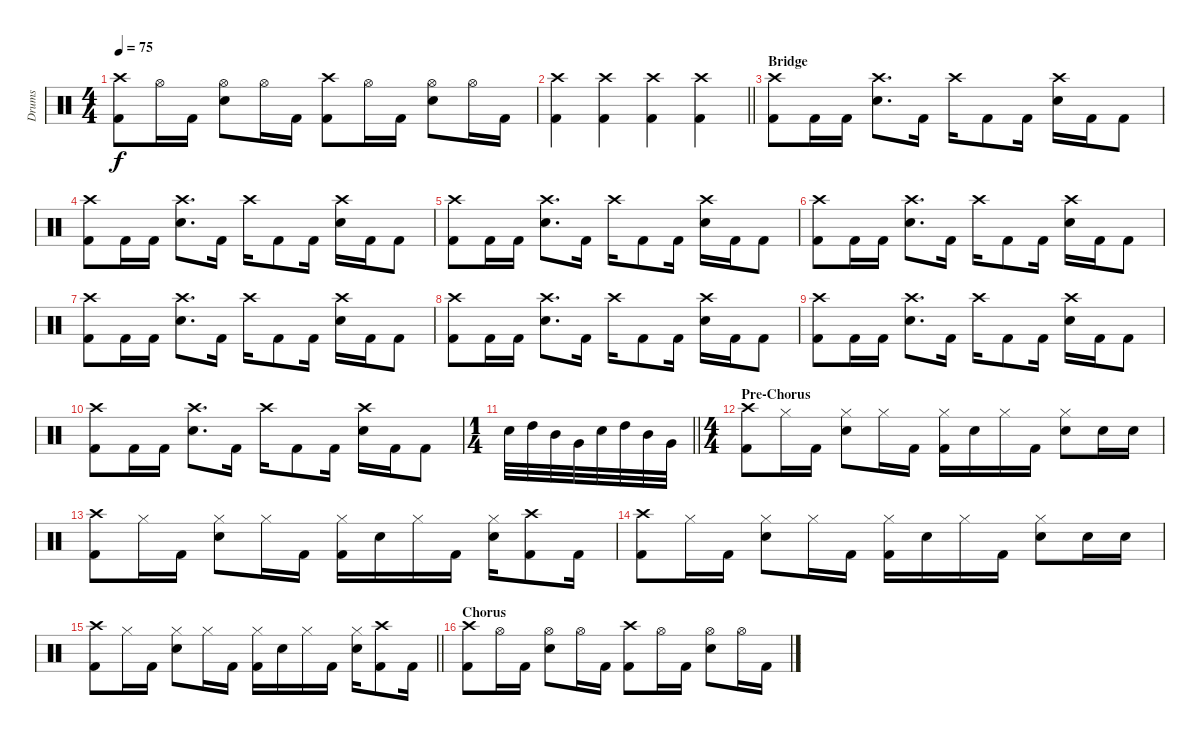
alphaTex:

\track ("Drums" "Drums") {instrument percussion}
\staff {score}
\articulation defaults
\ts (4 4)
\tempo 75
\clef neutral
\ks c
("Crash high (hit)" "Kick (hit) 2").8{dy f} "Hi-Hat (open)".16 "Kick (hit) 2".16 ("Hi-Hat (open)" "Snare (hit) 2").8 "Hi-Hat (open)".16 "Kick (hit) 2".16 ("Crash high (hit)" "Kick (hit) 2").8 "Hi-Hat (open)".16 "Kick (hit) 2".16 ("Hi-Hat (open)" "Snare (hit) 2").8 "Hi-Hat (open)".16 "Kick (hit) 2".16 |
\barLineRight lightlight
("Crash high (hit)" "Kick (hit) 2").4 ("Crash high (hit)" "Kick (hit) 2").4 ("Crash high (hit)" "Kick (hit) 2").4 ("Crash high (hit)" "Kick (hit) 2").4 |
\section ("" "Bridge")
("Crash high (hit)" "Kick (hit) 2").8 "Kick (hit) 2".16 "Kick (hit) 2".16 ("Crash high (hit)" "Snare (hit) 2").8{d} "Kick (hit) 2".16 "Crash high (hit)".16 "Kick (hit) 2".8 "Kick (hit) 2".16 ("Crash high (hit)" "Snare (hit) 2").16 "Kick (hit) 2".16 "Kick (hit) 2".8 |
("Crash high (hit)" "Kick (hit) 2").8 "Kick (hit) 2".16 "Kick (hit) 2".16 ("Crash high (hit)" "Snare (hit) 2").8{d} "Kick (hit) 2".16 "Crash high (hit)".16 "Kick (hit) 2".8 "Kick (hit) 2".16 ("Crash high (hit)" "Snare (hit) 2").16 "Kick (hit) 2".16 "Kick (hit) 2".8 |
("Crash high (hit)" "Kick (hit) 2").8 "Kick (hit) 2".16 "Kick (hit) 2".16 ("Crash high (hit)" "Snare (hit) 2").8{d} "Kick (hit) 2".16 "Crash high (hit)".16 "Kick (hit) 2".8 "Kick (hit) 2".16 ("Crash high (hit)" "Snare (hit) 2").16 "Kick (hit) 2".16 "Kick (hit) 2".8 |
("Crash high (hit)" "Kick (hit) 2").8 "Kick (hit) 2".16 "Kick (hit) 2".16 ("Crash high (hit)" "Snare (hit) 2").8{d} "Kick (hit) 2".16 "Crash high (hit)".16 "Kick (hit) 2".8 "Kick (hit) 2".16 ("Crash high (hit)" "Snare (hit) 2").16 "Kick (hit) 2".16 "Kick (hit) 2".8 |
("Crash high (hit)" "Kick (hit) 2").8 "Kick (hit) 2".16 "Kick (hit) 2".16 ("Crash high (hit)" "Snare (hit) 2").8{d} "Kick (hit) 2".16 "Crash high (hit)".16 "Kick (hit) 2".8 "Kick (hit) 2".16 ("Crash high (hit)" "Snare (hit) 2").16 "Kick (hit) 2".16 "Kick (hit) 2".8 |
("Crash high (hit)" "Kick (hit) 2").8 "Kick (hit) 2".16 "Kick (hit) 2".16 ("Crash high (hit)" "Snare (hit) 2").8{d} "Kick (hit) 2".16 "Crash high (hit)".16 "Kick (hit) 2".8 "Kick (hit) 2".16 ("Crash high (hit)" "Snare (hit) 2").16 "Kick (hit) 2".16 "Kick (hit) 2".8 |
("Crash high (hit)" "Kick (hit) 2").8 "Kick (hit) 2".16 "Kick (hit) 2".16 ("Crash high (hit)" "Snare (hit) 2").8{d} "Kick (hit) 2".16 "Crash high (hit)".16 "Kick (hit) 2".8 "Kick (hit) 2".16 ("Crash high (hit)" "Snare (hit) 2").16 "Kick (hit) 2".16 "Kick (hit) 2".8 |
("Crash high (hit)" "Kick (hit) 2").8 "Kick (hit) 2".16 "Kick (hit) 2".16 ("Crash high (hit)" "Snare (hit) 2").8{d} "Kick (hit) 2".16 "Crash high (hit)".16 "Kick (hit) 2".8 "Kick (hit) 2".16 ("Crash high (hit)" "Snare (hit) 2").16 "Kick (hit) 2".16 "Kick (hit) 2".8 |
\ts (1 4)
\barLineRight lightlight "Snare (hit) 2".32 "High Tom (hit)".32 "Mid Tom (hit)".32 "Very Low Tom (hit)".32 "Snare (hit) 2".32 "High Tom (hit)".32 "Mid Tom (hit)".32 "Very Low Tom (hit)".32
|
\ts (4 4)
\section ("" "Pre-Chorus")
("Crash high (hit)" "Kick (hit) 2").8 "Hi-Hat (closed)".16 "Kick (hit) 2".16 ("Hi-Hat (closed)" "Snare (hit) 2").8 "Hi-Hat (closed)".16 "Kick (hit) 2".16 ("Hi-Hat (closed)" "Kick (hit) 2").16 "Snare (hit) 2".16 "Hi-Hat (closed)".16 "Kick (hit) 2".16 ("Hi-Hat (closed)" "Snare (hit) 2").8 "Snare (hit) 2".16 "Snare (hit) 2".16 |
("Crash high (hit)" "Kick (hit) 2").8 "Hi-Hat (closed)".16 "Kick (hit) 2".16 ("Hi-Hat (closed)" "Snare (hit) 2").8 "Hi-Hat (closed)".16 "Kick (hit) 2".16 ("Hi-Hat (closed)" "Kick (hit) 2").16 "Snare (hit) 2".16 "Hi-Hat (closed)".16 "Kick (hit) 2".16 ("Hi-Hat (closed)" "Snare (hit) 2").16 ("Crash high (hit)" "Kick (hit) 2").8 "Kick (hit) 2".16 |
("Crash high (hit)" "Kick (hit) 2").8 "Hi-Hat (closed)".16 "Kick (hit) 2".16 ("Hi-Hat (closed)" "Snare (hit) 2").8 "Hi-Hat (closed)".16 "Kick (hit) 2".16 ("Hi-Hat (closed)" "Kick (hit) 2").16 "Snare (hit) 2".16 "Hi-Hat (closed)".16 "Kick (hit) 2".16 ("Hi-Hat (closed)" "Snare (hit) 2").8 "Snare (hit) 2".16 "Snare (hit) 2".16 |
\barLineRight lightlight
("Crash high (hit)" "Kick (hit) 2").8 "Hi-Hat (closed)".16 "Kick (hit) 2".16 ("Hi-Hat (closed)" "Snare (hit) 2").8 "Hi-Hat (closed)".16 "Kick (hit) 2".16 ("Hi-Hat (closed)" "Kick (hit) 2").16 "Snare (hit) 2".16 "Hi-Hat (closed)".16 "Kick (hit) 2".16 ("Hi-Hat (closed)" "Snare (hit) 2").16 ("Crash high (hit)" "Kick (hit) 2").8 "Kick (hit) 2".16 |
\section ("" "Chorus")
("Crash high (hit)" "Kick (hit) 2").8 "Hi-Hat (open)".16 "Kick (hit) 2".16 ("Hi-Hat (open)" "Snare (hit) 2").8 "Hi-Hat (open)".16 "Kick (hit) 2".16 ("Crash high (hit)" "Kick (hit) 2").8 "Hi-Hat (open)".16 "Kick (hit) 2".16 ("Hi-Hat (open)" "Snare (hit) 2").8 "Hi-Hat (open)".16 "Kick (hit) 2".16
